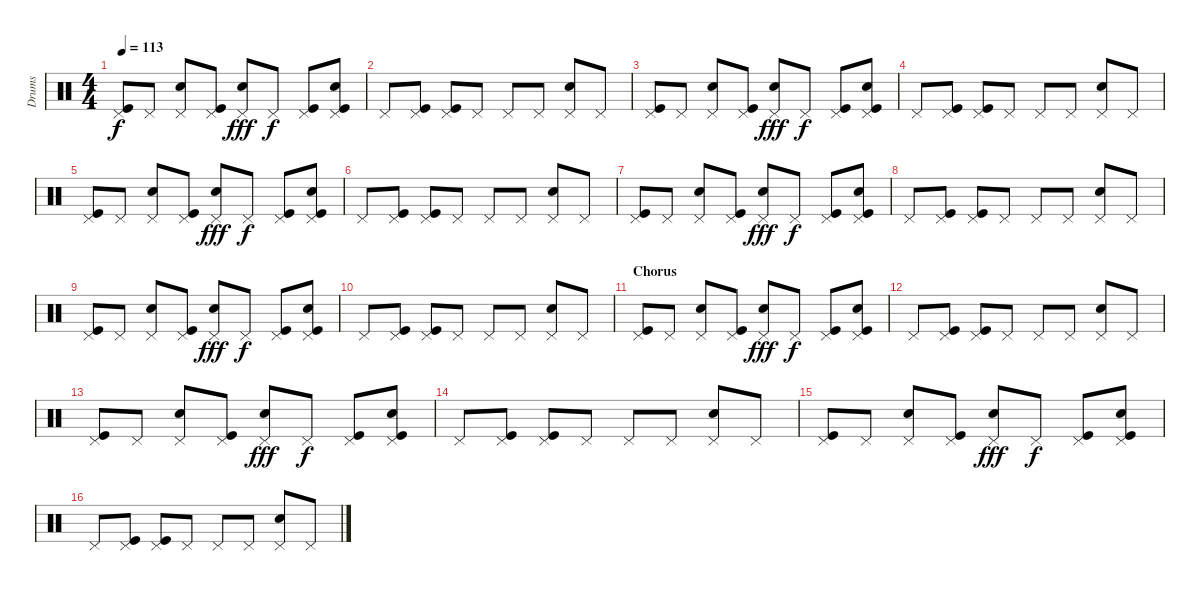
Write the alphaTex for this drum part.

\track ("Drums" "Drums") {instrument percussion}
\staff {score}
\articulation defaults
\ts (4 4)
\tempo 113
\clef neutral
\ks c
("Pedal Hi-Hat (hit)" "Kick (hit)").8{dy f} "Pedal Hi-Hat (hit)".8 ("Pedal Hi-Hat (hit)" "Electric Snare (hit)").8 ("Pedal Hi-Hat (hit)" "Kick (hit)").8 ("Pedal Hi-Hat (hit)" "Snare (hit) 2").8{dy fff} "Pedal Hi-Hat (hit)".8{dy f} ("Pedal Hi-Hat (hit)" "Kick (hit)").8 ("Pedal Hi-Hat (hit)" "Electric Snare (hit)" "Kick (hit)").8 |
"Pedal Hi-Hat (hit)".8 ("Pedal Hi-Hat (hit)" "Kick (hit)").8 ("Pedal Hi-Hat (hit)" "Kick (hit)").8 "Pedal Hi-Hat (hit)".8 "Pedal Hi-Hat (hit)".8 "Pedal Hi-Hat (hit)".8 ("Pedal Hi-Hat (hit)" "Snare (hit) 2").8 "Pedal Hi-Hat (hit)".8 |
("Pedal Hi-Hat (hit)" "Kick (hit)").8 "Pedal Hi-Hat (hit)".8 ("Pedal Hi-Hat (hit)" "Electric Snare (hit)").8 ("Pedal Hi-Hat (hit)" "Kick (hit)").8 ("Pedal Hi-Hat (hit)" "Snare (hit) 2").8{dy fff} "Pedal Hi-Hat (hit)".8{dy f} ("Pedal Hi-Hat (hit)" "Kick (hit)").8 ("Pedal Hi-Hat (hit)" "Electric Snare (hit)" "Kick (hit)").8 |
"Pedal Hi-Hat (hit)".8 ("Pedal Hi-Hat (hit)" "Kick (hit)").8 ("Pedal Hi-Hat (hit)" "Kick (hit)").8 "Pedal Hi-Hat (hit)".8 "Pedal Hi-Hat (hit)".8 "Pedal Hi-Hat (hit)".8 ("Pedal Hi-Hat (hit)" "Snare (hit) 2").8 "Pedal Hi-Hat (hit)".8 |
("Pedal Hi-Hat (hit)" "Kick (hit)").8 "Pedal Hi-Hat (hit)".8 ("Pedal Hi-Hat (hit)" "Electric Snare (hit)").8 ("Pedal Hi-Hat (hit)" "Kick (hit)").8 ("Pedal Hi-Hat (hit)" "Snare (hit) 2").8{dy fff} "Pedal Hi-Hat (hit)".8{dy f} ("Pedal Hi-Hat (hit)" "Kick (hit)").8 ("Pedal Hi-Hat (hit)" "Electric Snare (hit)" "Kick (hit)").8 |
"Pedal Hi-Hat (hit)".8 ("Pedal Hi-Hat (hit)" "Kick (hit)").8 ("Pedal Hi-Hat (hit)" "Kick (hit)").8 "Pedal Hi-Hat (hit)".8 "Pedal Hi-Hat (hit)".8 "Pedal Hi-Hat (hit)".8 ("Pedal Hi-Hat (hit)" "Snare (hit) 2").8 "Pedal Hi-Hat (hit)".8 |
("Pedal Hi-Hat (hit)" "Kick (hit)").8 "Pedal Hi-Hat (hit)".8 ("Pedal Hi-Hat (hit)" "Electric Snare (hit)").8 ("Pedal Hi-Hat (hit)" "Kick (hit)").8 ("Pedal Hi-Hat (hit)" "Snare (hit) 2").8{dy fff} "Pedal Hi-Hat (hit)".8{dy f} ("Pedal Hi-Hat (hit)" "Kick (hit)").8 ("Pedal Hi-Hat (hit)" "Electric Snare (hit)" "Kick (hit)").8 |
"Pedal Hi-Hat (hit)".8 ("Pedal Hi-Hat (hit)" "Kick (hit)").8 ("Pedal Hi-Hat (hit)" "Kick (hit)").8 "Pedal Hi-Hat (hit)".8 "Pedal Hi-Hat (hit)".8 "Pedal Hi-Hat (hit)".8 ("Pedal Hi-Hat (hit)" "Snare (hit) 2").8 "Pedal Hi-Hat (hit)".8 |
("Pedal Hi-Hat (hit)" "Kick (hit)").8 "Pedal Hi-Hat (hit)".8 ("Pedal Hi-Hat (hit)" "Electric Snare (hit)").8 ("Pedal Hi-Hat (hit)" "Kick (hit)").8 ("Pedal Hi-Hat (hit)" "Snare (hit) 2").8{dy fff} "Pedal Hi-Hat (hit)".8{dy f} ("Pedal Hi-Hat (hit)" "Kick (hit)").8 ("Pedal Hi-Hat (hit)" "Electric Snare (hit)" "Kick (hit)").8 |
"Pedal Hi-Hat (hit)".8 ("Pedal Hi-Hat (hit)" "Kick (hit)").8 ("Pedal Hi-Hat (hit)" "Kick (hit)").8 "Pedal Hi-Hat (hit)".8 "Pedal Hi-Hat (hit)".8 "Pedal Hi-Hat (hit)".8 ("Pedal Hi-Hat (hit)" "Snare (hit) 2").8 "Pedal Hi-Hat (hit)".8 |
\section ("" "Chorus")
("Pedal Hi-Hat (hit)" "Kick (hit)").8 "Pedal Hi-Hat (hit)".8 ("Pedal Hi-Hat (hit)" "Electric Snare (hit)").8 ("Pedal Hi-Hat (hit)" "Kick (hit)").8 ("Pedal Hi-Hat (hit)" "Snare (hit) 2").8{dy fff} "Pedal Hi-Hat (hit)".8{dy f} ("Pedal Hi-Hat (hit)" "Kick (hit)").8 ("Pedal Hi-Hat (hit)" "Electric Snare (hit)" "Kick (hit)").8 |
"Pedal Hi-Hat (hit)".8 ("Pedal Hi-Hat (hit)" "Kick (hit)").8 ("Pedal Hi-Hat (hit)" "Kick (hit)").8 "Pedal Hi-Hat (hit)".8 "Pedal Hi-Hat (hit)".8 "Pedal Hi-Hat (hit)".8 ("Pedal Hi-Hat (hit)" "Snare (hit) 2").8 "Pedal Hi-Hat (hit)".8 |
("Pedal Hi-Hat (hit)" "Kick (hit)").8 "Pedal Hi-Hat (hit)".8 ("Pedal Hi-Hat (hit)" "Electric Snare (hit)").8 ("Pedal Hi-Hat (hit)" "Kick (hit)").8 ("Pedal Hi-Hat (hit)" "Snare (hit) 2").8{dy fff} "Pedal Hi-Hat (hit)".8{dy f} ("Pedal Hi-Hat (hit)" "Kick (hit)").8 ("Pedal Hi-Hat (hit)" "Electric Snare (hit)" "Kick (hit)").8 |
"Pedal Hi-Hat (hit)".8 ("Pedal Hi-Hat (hit)" "Kick (hit)").8 ("Pedal Hi-Hat (hit)" "Kick (hit)").8 "Pedal Hi-Hat (hit)".8 "Pedal Hi-Hat (hit)".8 "Pedal Hi-Hat (hit)".8 ("Pedal Hi-Hat (hit)" "Snare (hit) 2").8 "Pedal Hi-Hat (hit)".8 |
("Pedal Hi-Hat (hit)" "Kick (hit)").8 "Pedal Hi-Hat (hit)".8 ("Pedal Hi-Hat (hit)" "Electric Snare (hit)").8 ("Pedal Hi-Hat (hit)" "Kick (hit)").8 ("Pedal Hi-Hat (hit)" "Snare (hit) 2").8{dy fff} "Pedal Hi-Hat (hit)".8{dy f} ("Pedal Hi-Hat (hit)" "Kick (hit)").8 ("Pedal Hi-Hat (hit)" "Electric Snare (hit)" "Kick (hit)").8 |
"Pedal Hi-Hat (hit)".8 ("Pedal Hi-Hat (hit)" "Kick (hit)").8 ("Pedal Hi-Hat (hit)" "Kick (hit)").8 "Pedal Hi-Hat (hit)".8 "Pedal Hi-Hat (hit)".8 "Pedal Hi-Hat (hit)".8 ("Pedal Hi-Hat (hit)" "Snare (hit) 2").8 "Pedal Hi-Hat (hit)".8
